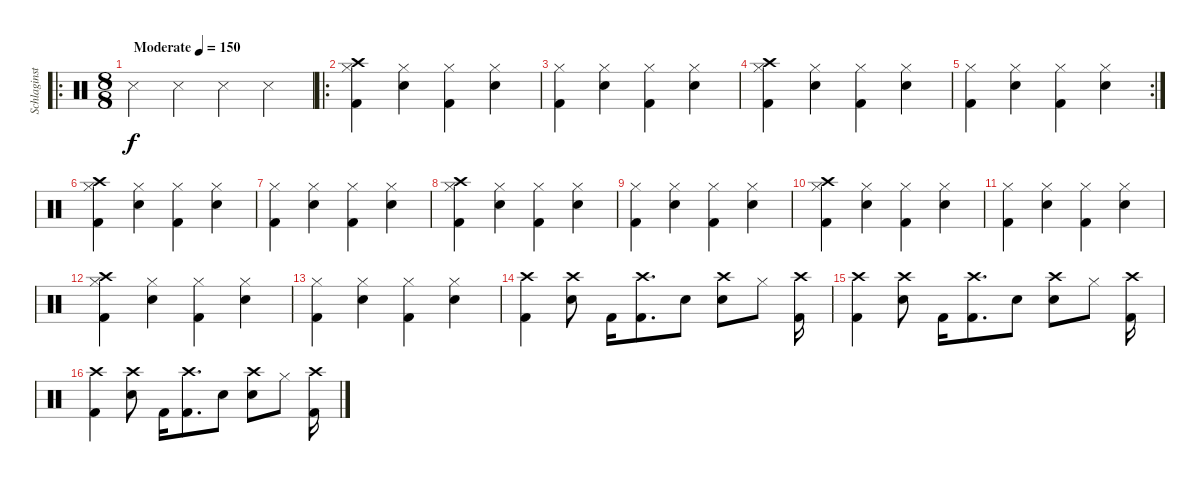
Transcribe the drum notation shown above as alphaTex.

\track ("Schlaginstrumente - Auswahl" "Schlaginst") {instrument percussion}
\staff {score}
\articulation defaults
\ro
\ts (8 8)
\tempo (150 "Moderate")
\clef neutral
\ks c "Snare (side stick) 3".4{dy f} "Snare (side stick) 3".4 "Snare (side stick) 3".4 "Snare (side stick) 3".4
|
\ro
("Hi-Hat (closed)" "Kick (hit) 2" "Crash high (hit)").4 ("Hi-Hat (closed)" "Snare (hit) 2").4 ("Hi-Hat (closed)" "Kick (hit) 2").4 ("Hi-Hat (closed)" "Snare (hit) 2").4 |
("Hi-Hat (closed)" "Kick (hit) 2").4 ("Hi-Hat (closed)" "Snare (hit) 2").4 ("Hi-Hat (closed)" "Kick (hit) 2").4 ("Hi-Hat (closed)" "Snare (hit) 2").4 |
("Hi-Hat (closed)" "Kick (hit) 2" "Crash high (hit)").4 ("Hi-Hat (closed)" "Snare (hit) 2").4 ("Hi-Hat (closed)" "Kick (hit) 2").4 ("Hi-Hat (closed)" "Snare (hit) 2").4 |
\rc 2
("Hi-Hat (closed)" "Kick (hit) 2").4 ("Hi-Hat (closed)" "Snare (hit) 2").4 ("Hi-Hat (closed)" "Kick (hit) 2").4 ("Hi-Hat (closed)" "Snare (hit) 2").4 |
("Hi-Hat (closed)" "Kick (hit) 2" "Crash high (hit)").4 ("Hi-Hat (closed)" "Snare (hit) 2").4 ("Hi-Hat (closed)" "Kick (hit) 2").4 ("Hi-Hat (closed)" "Snare (hit) 2").4 |
("Hi-Hat (closed)" "Kick (hit) 2").4 ("Hi-Hat (closed)" "Snare (hit) 2").4 ("Hi-Hat (closed)" "Kick (hit) 2").4 ("Hi-Hat (closed)" "Snare (hit) 2").4 |
("Hi-Hat (closed)" "Kick (hit) 2" "Crash high (hit)").4 ("Hi-Hat (closed)" "Snare (hit) 2").4 ("Hi-Hat (closed)" "Kick (hit) 2").4 ("Hi-Hat (closed)" "Snare (hit) 2").4 |
("Hi-Hat (closed)" "Kick (hit) 2").4 ("Hi-Hat (closed)" "Snare (hit) 2").4 ("Hi-Hat (closed)" "Kick (hit) 2").4 ("Hi-Hat (closed)" "Snare (hit) 2").4 |
("Hi-Hat (closed)" "Kick (hit) 2" "Crash high (hit)").4 ("Hi-Hat (closed)" "Snare (hit) 2").4 ("Hi-Hat (closed)" "Kick (hit) 2").4 ("Hi-Hat (closed)" "Snare (hit) 2").4 |
("Hi-Hat (closed)" "Kick (hit) 2").4 ("Hi-Hat (closed)" "Snare (hit) 2").4 ("Hi-Hat (closed)" "Kick (hit) 2").4 ("Hi-Hat (closed)" "Snare (hit) 2").4 |
("Hi-Hat (closed)" "Kick (hit) 2" "Crash high (hit)").4 ("Hi-Hat (closed)" "Snare (hit) 2").4 ("Hi-Hat (closed)" "Kick (hit) 2").4 ("Hi-Hat (closed)" "Snare (hit) 2").4 |
("Hi-Hat (closed)" "Kick (hit) 2").4 ("Hi-Hat (closed)" "Snare (hit) 2").4 ("Hi-Hat (closed)" "Kick (hit) 2").4 ("Hi-Hat (closed)" "Snare (hit) 2").4 |
("Kick (hit) 2" "Crash high (hit)").4 ("Snare (hit) 2" "Crash high (hit)").8 "Kick (hit) 2".16 ("Kick (hit) 2" "Crash high (hit)").8{d} "Snare (hit) 2".8 ("Snare (hit) 2" "Crash high (hit)").8 "Hi-Hat (closed)".8 ("Kick (hit) 2" "Crash high (hit)").16 |
("Kick (hit) 2" "Crash high (hit)").4 ("Snare (hit) 2" "Crash high (hit)").8 "Kick (hit) 2".16 ("Kick (hit) 2" "Crash high (hit)").8{d} "Snare (hit) 2".8 ("Snare (hit) 2" "Crash high (hit)").8 "Hi-Hat (closed)".8 ("Kick (hit) 2" "Crash high (hit)").16 |
("Kick (hit) 2" "Crash high (hit)").4 ("Snare (hit) 2" "Crash high (hit)").8 "Kick (hit) 2".16 ("Kick (hit) 2" "Crash high (hit)").8{d} "Snare (hit) 2".8 ("Snare (hit) 2" "Crash high (hit)").8 "Hi-Hat (closed)".8 ("Kick (hit) 2" "Crash high (hit)").16
